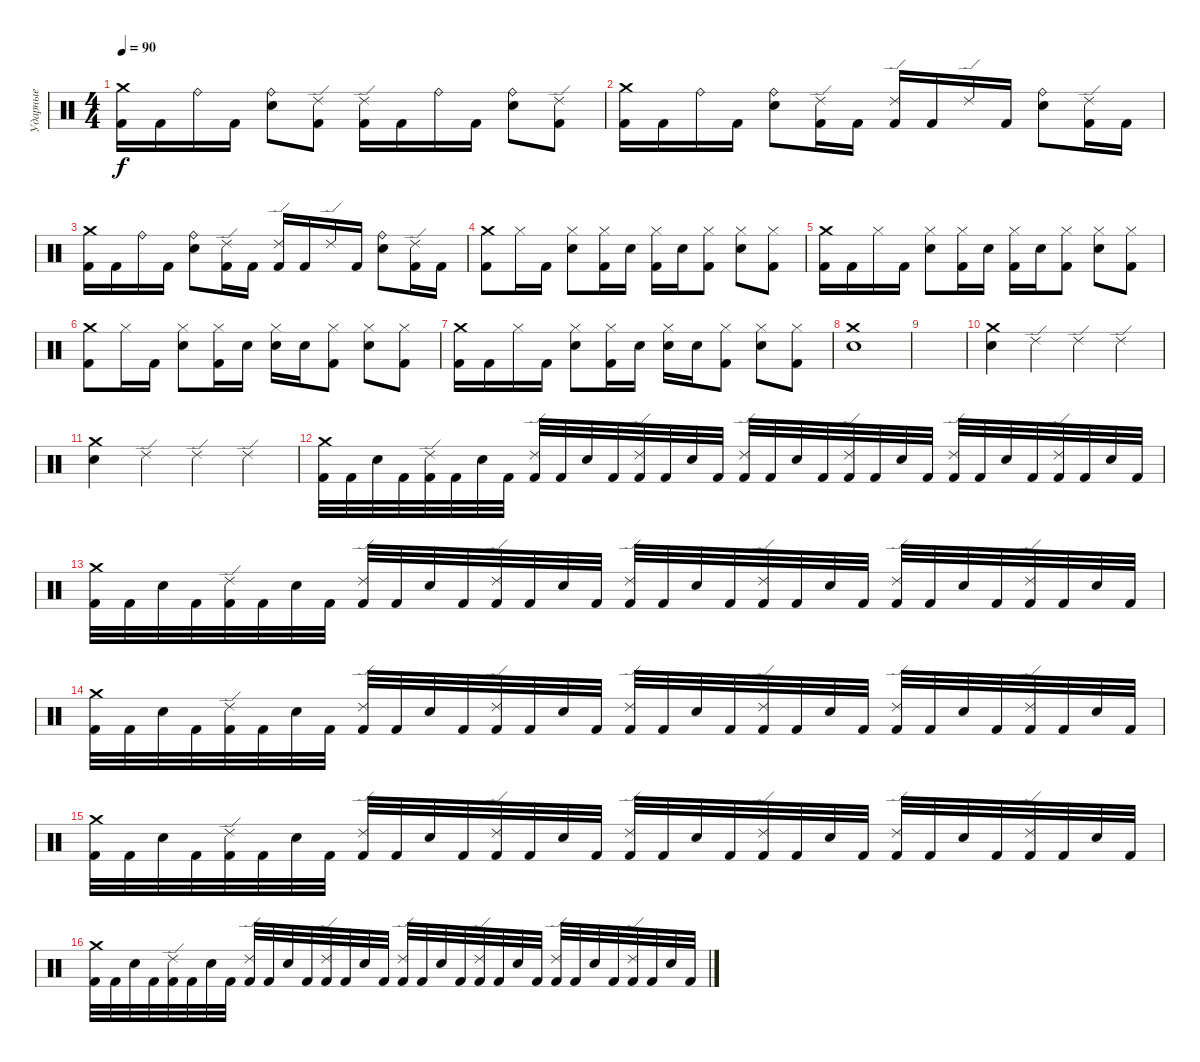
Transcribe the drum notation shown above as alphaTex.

\track ("Ударные" "Ударные") {instrument percussion}
\staff {score}
\articulation defaults
\ts (4 4)
\tempo 90
\clef neutral
\ks c
("Crash medium (hit)" "Kick (hit) 2").16{dy f} "Kick (hit) 2".16 "Ride (bell)".16 "Kick (hit) 2".16 ("Ride (bell)" "Electric Snare (hit)").8 ("Ride (edge) 2" "Kick (hit) 2").8 ("Ride (edge) 2" "Kick (hit) 2").16 "Kick (hit) 2".16 "Ride (bell)".16 "Kick (hit) 2".16 ("Ride (bell)" "Electric Snare (hit)").8 ("Ride (edge) 2" "Kick (hit) 2").8 |
("Crash medium (hit)" "Kick (hit) 2").16 "Kick (hit) 2".16 "Ride (bell)".16 "Kick (hit) 2".16 ("Ride (bell)" "Electric Snare (hit)").8 ("Ride (edge) 2" "Kick (hit) 2").16 "Kick (hit) 2".16 ("Ride (edge) 2" "Kick (hit) 2").16 "Kick (hit) 2".16 "Ride (edge) 2".16 "Kick (hit) 2".16 ("Ride (bell)" "Electric Snare (hit)").8 ("Ride (edge) 2" "Kick (hit) 2").16 "Kick (hit) 2".16 |
("Crash medium (hit)" "Kick (hit) 2").16 "Kick (hit) 2".16 "Ride (bell)".16 "Kick (hit) 2".16 ("Ride (bell)" "Electric Snare (hit)").8 ("Ride (edge) 2" "Kick (hit) 2").16 "Kick (hit) 2".16 ("Ride (edge) 2" "Kick (hit) 2").16 "Kick (hit) 2".16 "Ride (edge) 2".16 "Kick (hit) 2".16 ("Ride (bell)" "Electric Snare (hit)").8 ("Ride (edge) 2" "Kick (hit) 2").16 "Kick (hit) 2".16 |
("Crash medium (hit)" "Kick (hit) 2").8 "Hi-Hat (closed)".16 "Kick (hit) 2".16 ("Hi-Hat (closed)" "Electric Snare (hit)").8 ("Hi-Hat (closed)" "Kick (hit) 2").16 "Electric Snare (hit)".16 ("Hi-Hat (closed)" "Kick (hit) 2").16 "Electric Snare (hit)".16 ("Hi-Hat (closed)" "Kick (hit) 2").8 ("Hi-Hat (closed)" "Electric Snare (hit)").8 ("Hi-Hat (closed)" "Kick (hit) 2").8 |
("Kick (hit) 2" "Crash medium (hit)").16 "Kick (hit) 2".16 "Hi-Hat (closed)".16 "Kick (hit) 2".16 ("Hi-Hat (closed)" "Electric Snare (hit)").8 ("Hi-Hat (closed)" "Kick (hit) 2").16 "Electric Snare (hit)".16 ("Hi-Hat (closed)" "Kick (hit) 2").16 "Electric Snare (hit)".16 ("Hi-Hat (closed)" "Kick (hit) 2").8 ("Hi-Hat (closed)" "Electric Snare (hit)").8 ("Hi-Hat (closed)" "Kick (hit) 2").8 |
("Crash medium (hit)" "Kick (hit) 2").8 "Hi-Hat (closed)".16 "Kick (hit) 2".16 ("Hi-Hat (closed)" "Electric Snare (hit)").8 ("Hi-Hat (closed)" "Kick (hit) 2").16 "Electric Snare (hit)".16 ("Hi-Hat (closed)" "Electric Snare (hit)").16 "Electric Snare (hit)".16 ("Hi-Hat (closed)" "Kick (hit) 2").8 ("Hi-Hat (closed)" "Electric Snare (hit)").8 ("Hi-Hat (closed)" "Kick (hit) 2").8 |
("Kick (hit) 2" "Crash medium (hit)").16 "Kick (hit) 2".16 "Hi-Hat (closed)".16 "Kick (hit) 2".16 ("Hi-Hat (closed)" "Electric Snare (hit)").8 ("Hi-Hat (closed)" "Kick (hit) 2").16 "Electric Snare (hit)".16 ("Hi-Hat (closed)" "Electric Snare (hit)").16 "Electric Snare (hit)".16 ("Hi-Hat (closed)" "Kick (hit) 2").8 ("Hi-Hat (closed)" "Electric Snare (hit)").8 ("Hi-Hat (closed)" "Kick (hit) 2").8 |
("Electric Snare (hit)" "Crash medium (hit)").1 |
|
("Crash medium (hit)" "Electric Snare (hit)").4 "Ride (edge) 2".4 "Ride (edge) 2".4 "Ride (edge) 2".4 |
("Crash medium (hit)" "Electric Snare (hit)").4 "Ride (edge) 2".4 "Ride (edge) 2".4 "Ride (edge) 2".4 |
("Crash medium (hit)" "Kick (hit) 2").32 "Kick (hit) 2".32 "Electric Snare (hit)".32 "Kick (hit) 2".32 ("Ride (edge) 2" "Kick (hit) 2").32 "Kick (hit) 2".32 "Electric Snare (hit)".32 "Kick (hit) 2".32 ("Ride (edge) 2" "Kick (hit) 2").32 "Kick (hit) 2".32 "Electric Snare (hit)".32 "Kick (hit) 2".32 ("Ride (edge) 2" "Kick (hit) 2").32 "Kick (hit) 2".32 "Electric Snare (hit)".32 "Kick (hit) 2".32 ("Ride (edge) 2" "Kick (hit) 2").32 "Kick (hit) 2".32 "Electric Snare (hit)".32 "Kick (hit) 2".32 ("Ride (edge) 2" "Kick (hit) 2").32 "Kick (hit) 2".32 "Electric Snare (hit)".32 "Kick (hit) 2".32 ("Ride (edge) 2" "Kick (hit) 2").32 "Kick (hit) 2".32 "Electric Snare (hit)".32 "Kick (hit) 2".32 ("Ride (edge) 2" "Kick (hit) 2").32 "Kick (hit) 2".32 "Electric Snare (hit)".32 "Kick (hit) 2".32 |
("Crash medium (hit)" "Kick (hit) 2").32 "Kick (hit) 2".32 "Electric Snare (hit)".32 "Kick (hit) 2".32 ("Ride (edge) 2" "Kick (hit) 2").32 "Kick (hit) 2".32 "Electric Snare (hit)".32 "Kick (hit) 2".32 ("Ride (edge) 2" "Kick (hit) 2").32 "Kick (hit) 2".32 "Electric Snare (hit)".32 "Kick (hit) 2".32 ("Ride (edge) 2" "Kick (hit) 2").32 "Kick (hit) 2".32 "Electric Snare (hit)".32 "Kick (hit) 2".32 ("Ride (edge) 2" "Kick (hit) 2").32 "Kick (hit) 2".32 "Electric Snare (hit)".32 "Kick (hit) 2".32 ("Ride (edge) 2" "Kick (hit) 2").32 "Kick (hit) 2".32 "Electric Snare (hit)".32 "Kick (hit) 2".32 ("Ride (edge) 2" "Kick (hit) 2").32 "Kick (hit) 2".32 "Electric Snare (hit)".32 "Kick (hit) 2".32 ("Ride (edge) 2" "Kick (hit) 2").32 "Kick (hit) 2".32 "Electric Snare (hit)".32 "Kick (hit) 2".32 |
("Crash medium (hit)" "Kick (hit) 2").32 "Kick (hit) 2".32 "Electric Snare (hit)".32 "Kick (hit) 2".32 ("Ride (edge) 2" "Kick (hit) 2").32 "Kick (hit) 2".32 "Electric Snare (hit)".32 "Kick (hit) 2".32 ("Ride (edge) 2" "Kick (hit) 2").32 "Kick (hit) 2".32 "Electric Snare (hit)".32 "Kick (hit) 2".32 ("Ride (edge) 2" "Kick (hit) 2").32 "Kick (hit) 2".32 "Electric Snare (hit)".32 "Kick (hit) 2".32 ("Ride (edge) 2" "Kick (hit) 2").32 "Kick (hit) 2".32 "Electric Snare (hit)".32 "Kick (hit) 2".32 ("Ride (edge) 2" "Kick (hit) 2").32 "Kick (hit) 2".32 "Electric Snare (hit)".32 "Kick (hit) 2".32 ("Ride (edge) 2" "Kick (hit) 2").32 "Kick (hit) 2".32 "Electric Snare (hit)".32 "Kick (hit) 2".32 ("Ride (edge) 2" "Kick (hit) 2").32 "Kick (hit) 2".32 "Electric Snare (hit)".32 "Kick (hit) 2".32 |
("Crash medium (hit)" "Kick (hit) 2").32 "Kick (hit) 2".32 "Electric Snare (hit)".32 "Kick (hit) 2".32 ("Ride (edge) 2" "Kick (hit) 2").32 "Kick (hit) 2".32 "Electric Snare (hit)".32 "Kick (hit) 2".32 ("Ride (edge) 2" "Kick (hit) 2").32 "Kick (hit) 2".32 "Electric Snare (hit)".32 "Kick (hit) 2".32 ("Ride (edge) 2" "Kick (hit) 2").32 "Kick (hit) 2".32 "Electric Snare (hit)".32 "Kick (hit) 2".32 ("Ride (edge) 2" "Kick (hit) 2").32 "Kick (hit) 2".32 "Electric Snare (hit)".32 "Kick (hit) 2".32 ("Ride (edge) 2" "Kick (hit) 2").32 "Kick (hit) 2".32 "Electric Snare (hit)".32 "Kick (hit) 2".32 ("Ride (edge) 2" "Kick (hit) 2").32 "Kick (hit) 2".32 "Electric Snare (hit)".32 "Kick (hit) 2".32 ("Ride (edge) 2" "Kick (hit) 2").32 "Kick (hit) 2".32 "Electric Snare (hit)".32 "Kick (hit) 2".32 |
("Crash medium (hit)" "Kick (hit) 2").32 "Kick (hit) 2".32 "Electric Snare (hit)".32 "Kick (hit) 2".32 ("Ride (edge) 2" "Kick (hit) 2").32 "Kick (hit) 2".32 "Electric Snare (hit)".32 "Kick (hit) 2".32 ("Ride (edge) 2" "Kick (hit) 2").32 "Kick (hit) 2".32 "Electric Snare (hit)".32 "Kick (hit) 2".32 ("Ride (edge) 2" "Kick (hit) 2").32 "Kick (hit) 2".32 "Electric Snare (hit)".32 "Kick (hit) 2".32 ("Ride (edge) 2" "Kick (hit) 2").32 "Kick (hit) 2".32 "Electric Snare (hit)".32 "Kick (hit) 2".32 ("Ride (edge) 2" "Kick (hit) 2").32 "Kick (hit) 2".32 "Electric Snare (hit)".32 "Kick (hit) 2".32 ("Ride (edge) 2" "Kick (hit) 2").32 "Kick (hit) 2".32 "Electric Snare (hit)".32 "Kick (hit) 2".32 ("Ride (edge) 2" "Kick (hit) 2").32 "Kick (hit) 2".32 "Electric Snare (hit)".32 "Kick (hit) 2".32
